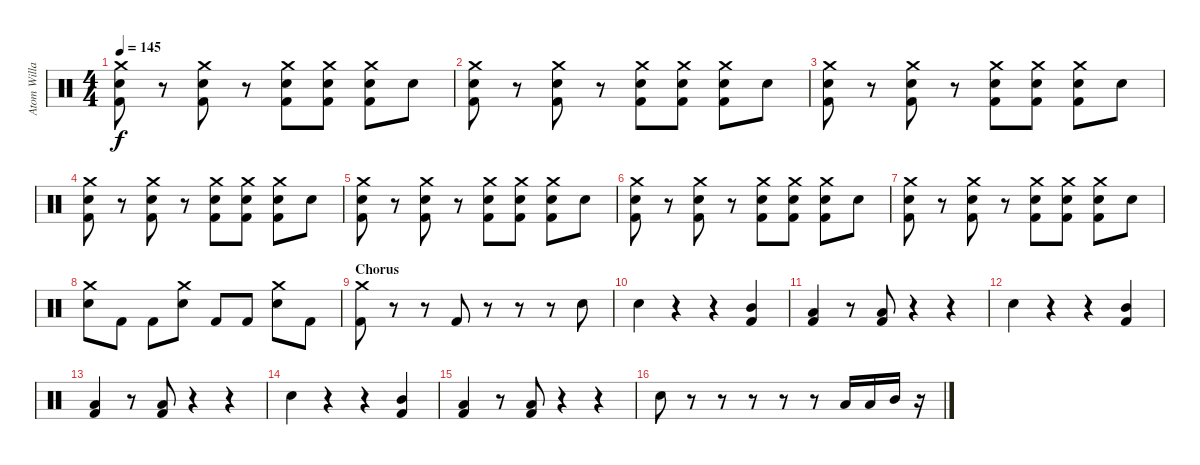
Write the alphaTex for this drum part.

\track ("Atom Willard (Drums)" "Atom Willa") {instrument percussion}
\staff {score}
\articulation defaults
\ts (4 4)
\tempo 145
\clef neutral
\ks c
("Crash medium (hit)" "Electric Snare (hit)" "Kick (hit) 2").8{dy f} r.8 ("Crash medium (hit)" "Electric Snare (hit)" "Kick (hit) 2").8 r.8 ("Crash medium (hit)" "Electric Snare (hit)" "Kick (hit) 2").8 ("Crash medium (hit)" "Electric Snare (hit)" "Kick (hit) 2").8 ("Crash medium (hit)" "Electric Snare (hit)" "Kick (hit) 2").8 "Snare (hit)".8 |
("Crash medium (hit)" "Electric Snare (hit)" "Kick (hit) 2").8 r.8 ("Crash medium (hit)" "Electric Snare (hit)" "Kick (hit) 2").8 r.8 ("Crash medium (hit)" "Electric Snare (hit)" "Kick (hit) 2").8 ("Crash medium (hit)" "Electric Snare (hit)" "Kick (hit) 2").8 ("Crash medium (hit)" "Electric Snare (hit)" "Kick (hit) 2").8 "Snare (hit)".8 |
("Crash medium (hit)" "Electric Snare (hit)" "Kick (hit) 2").8 r.8 ("Crash medium (hit)" "Electric Snare (hit)" "Kick (hit) 2").8 r.8 ("Crash medium (hit)" "Electric Snare (hit)" "Kick (hit) 2").8 ("Crash medium (hit)" "Electric Snare (hit)" "Kick (hit) 2").8 ("Crash medium (hit)" "Electric Snare (hit)" "Kick (hit) 2").8 "Snare (hit)".8 |
("Crash medium (hit)" "Electric Snare (hit)" "Kick (hit) 2").8 r.8 ("Crash medium (hit)" "Electric Snare (hit)" "Kick (hit) 2").8 r.8 ("Crash medium (hit)" "Electric Snare (hit)" "Kick (hit) 2").8 ("Crash medium (hit)" "Electric Snare (hit)" "Kick (hit) 2").8 ("Crash medium (hit)" "Electric Snare (hit)" "Kick (hit) 2").8 "Snare (hit)".8 |
("Crash medium (hit)" "Electric Snare (hit)" "Kick (hit) 2").8 r.8 ("Crash medium (hit)" "Electric Snare (hit)" "Kick (hit) 2").8 r.8 ("Crash medium (hit)" "Electric Snare (hit)" "Kick (hit) 2").8 ("Crash medium (hit)" "Electric Snare (hit)" "Kick (hit) 2").8 ("Crash medium (hit)" "Electric Snare (hit)" "Kick (hit) 2").8 "Snare (hit)".8 |
("Crash medium (hit)" "Electric Snare (hit)" "Kick (hit) 2").8 r.8 ("Crash medium (hit)" "Electric Snare (hit)" "Kick (hit) 2").8 r.8 ("Crash medium (hit)" "Electric Snare (hit)" "Kick (hit) 2").8 ("Crash medium (hit)" "Electric Snare (hit)" "Kick (hit) 2").8 ("Crash medium (hit)" "Electric Snare (hit)" "Kick (hit) 2").8 "Snare (hit)".8 |
("Crash medium (hit)" "Electric Snare (hit)" "Kick (hit) 2").8 r.8 ("Crash medium (hit)" "Electric Snare (hit)" "Kick (hit) 2").8 r.8 ("Crash medium (hit)" "Electric Snare (hit)" "Kick (hit) 2").8 ("Crash medium (hit)" "Electric Snare (hit)" "Kick (hit) 2").8 ("Crash medium (hit)" "Electric Snare (hit)" "Kick (hit) 2").8 "Snare (hit)".8 |
("Crash medium (hit)" "Electric Snare (hit)").8 "Kick (hit) 2".8 "Kick (hit) 2".8 ("Crash medium (hit)" "Electric Snare (hit)").8 "Kick (hit) 2".8 "Kick (hit) 2".8 ("Crash medium (hit)" "Electric Snare (hit)").8 "Kick (hit) 2".8 |
\section ("" "Chorus")
("Crash medium (hit)" "Kick (hit) 2").8 r.8 r.8 "Kick (hit) 2".8 r.8 r.8 r.8 "Snare (hit)".8 |
"Electric Snare (hit)".4 r.4 r.4 ("Mid Tom (hit)" "Kick (hit) 2").4 |
("Low Tom (hit)" "Kick (hit) 2").4 r.8 ("Low Tom (hit)" "Kick (hit) 2").8 r.4 r.4 |
"Electric Snare (hit)".4 r.4 r.4 ("Mid Tom (hit)" "Kick (hit) 2").4 |
("Low Tom (hit)" "Kick (hit) 2").4 r.8 ("Low Tom (hit)" "Kick (hit) 2").8 r.4 r.4 |
"Electric Snare (hit)".4 r.4 r.4 ("Mid Tom (hit)" "Kick (hit) 2").4 |
("Low Tom (hit)" "Kick (hit) 2").4 r.8 ("Low Tom (hit)" "Kick (hit) 2").8 r.4 r.4 |
"Electric Snare (hit)".8 r.8 r.8 r.8 r.8 r.8 "Low Tom (hit)".16 "Low Tom (hit)".16 "Mid Tom (hit)".16 r.16
